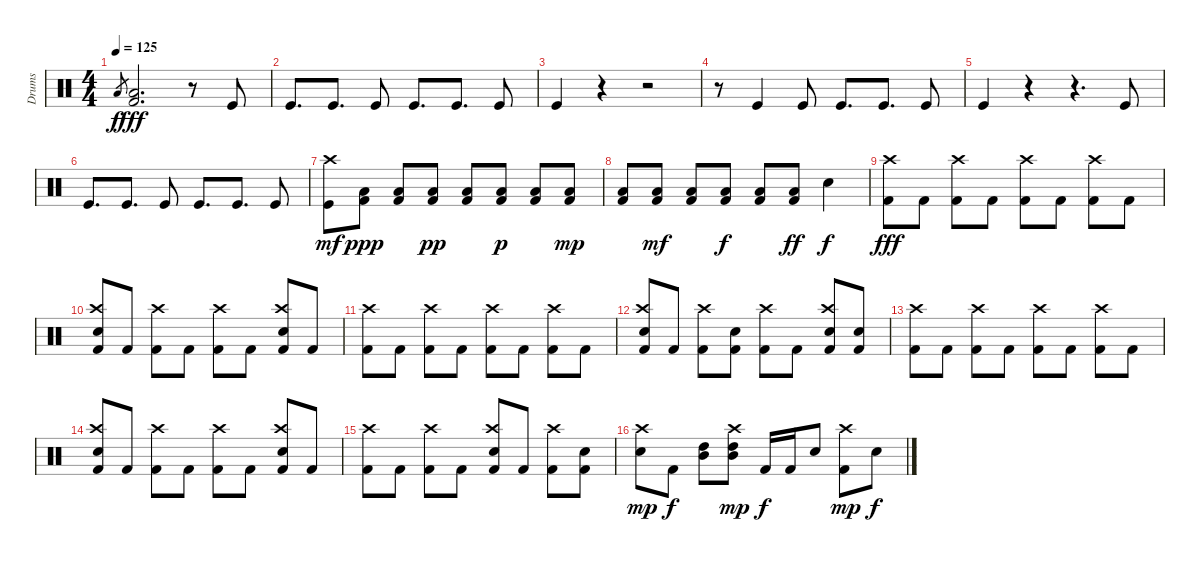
\track ("Drums" "Drums") {instrument percussion}
\staff {score}
\articulation defaults
\ts (4 4)
\tempo 125
\clef neutral
\ks c "Low Floor Tom (hit)".8{gr dy f}
("Low Floor Tom (hit)" "Kick (hit) 2").2{d dy fff} r.8 "Kick (hit)".8 |
"Kick (hit)".8{d} "Kick (hit)".8{d} "Kick (hit)".8 "Kick (hit)".8{d} "Kick (hit)".8{d} "Kick (hit)".8 |
"Kick (hit)".4 r.4 r.2 |
r.8 "Kick (hit)".4 "Kick (hit)".8 "Kick (hit)".8{d} "Kick (hit)".8{d} "Kick (hit)".8 |
"Kick (hit)".4 r.4 r.4{d} "Kick (hit)".8 |
"Kick (hit)".8{d} "Kick (hit)".8{d} "Kick (hit)".8 "Kick (hit)".8{d} "Kick (hit)".8{d} "Kick (hit)".8 |
("Crash high (hit)" "Kick (hit)").8{dy mf} ("Low Floor Tom (hit)" "Kick (hit) 2").8{dy ppp} ("Low Floor Tom (hit)" "Kick (hit) 2").8 ("Low Floor Tom (hit)" "Kick (hit) 2").8{dy pp} ("Low Floor Tom (hit)" "Kick (hit) 2").8 ("Low Floor Tom (hit)" "Kick (hit) 2").8{dy p} ("Low Floor Tom (hit)" "Kick (hit) 2").8 ("Low Floor Tom (hit)" "Kick (hit) 2").8{dy mp} |
("Low Floor Tom (hit)" "Kick (hit) 2").8 ("Low Floor Tom (hit)" "Kick (hit) 2").8{dy mf} ("Low Floor Tom (hit)" "Kick (hit) 2").8 ("Low Floor Tom (hit)" "Kick (hit) 2").8{dy f} ("Low Floor Tom (hit)" "Kick (hit) 2").8 ("Low Floor Tom (hit)" "Kick (hit) 2").8{dy ff} "Electric Snare (hit)".4{dy f} |
("Crash high (hit)" "Kick (hit) 2").8{dy fff} "Kick (hit) 2".8 ("Crash high (hit)" "Kick (hit) 2").8 "Kick (hit) 2".8 ("Crash high (hit)" "Kick (hit) 2").8 "Kick (hit) 2".8 ("Crash high (hit)" "Kick (hit) 2").8 "Kick (hit) 2".8 |
("Crash high (hit)" "Electric Snare (hit)" "Kick (hit) 2").8 "Kick (hit) 2".8 ("Crash high (hit)" "Kick (hit) 2").8 "Kick (hit) 2".8 ("Crash high (hit)" "Kick (hit) 2").8 "Kick (hit) 2".8 ("Crash high (hit)" "Electric Snare (hit)" "Kick (hit) 2").8 "Kick (hit) 2".8 |
("Crash high (hit)" "Kick (hit) 2").8 "Kick (hit) 2".8 ("Crash high (hit)" "Kick (hit) 2").8 "Kick (hit) 2".8 ("Crash high (hit)" "Kick (hit) 2").8 "Kick (hit) 2".8 ("Crash high (hit)" "Kick (hit) 2").8 "Kick (hit) 2".8 |
("Crash high (hit)" "Electric Snare (hit)" "Kick (hit) 2").8 "Kick (hit) 2".8 ("Crash high (hit)" "Kick (hit) 2").8 ("Electric Snare (hit)" "Kick (hit) 2").8 ("Crash high (hit)" "Kick (hit) 2").8 "Kick (hit) 2".8 ("Crash high (hit)" "Electric Snare (hit)" "Kick (hit) 2").8 ("Electric Snare (hit)" "Kick (hit) 2").8 |
("Crash high (hit)" "Kick (hit) 2").8 "Kick (hit) 2".8 ("Crash high (hit)" "Kick (hit) 2").8 "Kick (hit) 2".8 ("Crash high (hit)" "Kick (hit) 2").8 "Kick (hit) 2".8 ("Crash high (hit)" "Kick (hit) 2").8 "Kick (hit) 2".8 |
("Crash high (hit)" "Electric Snare (hit)" "Kick (hit) 2").8 "Kick (hit) 2".8 ("Crash high (hit)" "Kick (hit) 2").8 "Kick (hit) 2".8 ("Crash high (hit)" "Kick (hit) 2").8 "Kick (hit) 2".8 ("Crash high (hit)" "Electric Snare (hit)" "Kick (hit) 2").8 "Kick (hit) 2".8 |
("Crash high (hit)" "Kick (hit) 2").8 "Kick (hit) 2".8 ("Crash high (hit)" "Kick (hit) 2").8 "Kick (hit) 2".8 ("Crash high (hit)" "Electric Snare (hit)" "Kick (hit) 2").8 "Kick (hit) 2".8 ("Crash high (hit)" "Kick (hit) 2").8 ("Electric Snare (hit)" "Kick (hit) 2").8 |
("Crash high (hit)" "Electric Snare (hit)").8{dy mp} "Kick (hit) 2".8{dy f} ("Mid Tom (hit)" "High Tom (hit)").8 ("Crash high (hit)" "Mid Tom (hit)" "High Tom (hit)").8{dy mp} "Kick (hit) 2".16{dy f} "Kick (hit) 2".16 "Electric Snare (hit)".8 ("Crash high (hit)" "Kick (hit) 2").8{dy mp} "Electric Snare (hit)".8{dy f}
